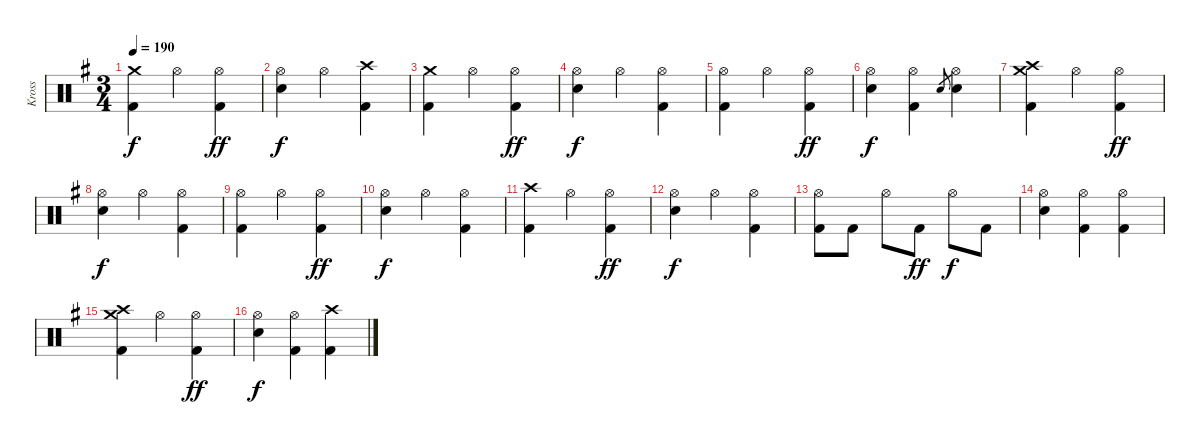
\track ("Kross" "Kross") {instrument percussion}
\staff {score}
\articulation defaults
\ts (3 4)
\tempo 190
\clef neutral
\ks g
("Crash medium (hit)" "Kick (hit) 2").4{dy f} "Hi-Hat (open)".4 ("Hi-Hat (open)" "Kick (hit) 2").4{dy ff} |
("Hi-Hat (open)" "Snare (hit) 2").4{dy f} "Hi-Hat (open)".4 ("Crash high (hit)" "Kick (hit) 2").4 |
("Crash medium (hit)" "Kick (hit) 2").4 "Hi-Hat (open)".4 ("Hi-Hat (open)" "Kick (hit) 2").4{dy ff} |
("Hi-Hat (open)" "Snare (hit) 2").4{dy f} "Hi-Hat (open)".4 ("Hi-Hat (open)" "Kick (hit) 2").4 |
("Hi-Hat (open)" "Kick (hit) 2").4 "Hi-Hat (open)".4 ("Hi-Hat (open)" "Kick (hit) 2").4{dy ff} |
("Hi-Hat (open)" "Snare (hit) 2").4{dy f} ("Hi-Hat (open)" "Kick (hit) 2").4 "Electric Snare (hit)".8{gr} ("Hi-Hat (open)" "Electric Snare (hit)").4 |
("Crash high (hit)" "Crash medium (hit)" "Kick (hit) 2").4 "Hi-Hat (open)".4 ("Hi-Hat (open)" "Kick (hit) 2").4{dy ff} |
("Hi-Hat (open)" "Snare (hit) 2").4{dy f} "Hi-Hat (open)".4 ("Hi-Hat (open)" "Kick (hit) 2").4 |
("Hi-Hat (open)" "Kick (hit) 2").4 "Hi-Hat (open)".4 ("Hi-Hat (open)" "Kick (hit) 2").4{dy ff} |
("Hi-Hat (open)" "Snare (hit) 2").4{dy f} "Hi-Hat (open)".4 ("Hi-Hat (open)" "Kick (hit) 2").4 |
("Crash high (hit)" "Kick (hit) 2").4 "Hi-Hat (open)".4 ("Hi-Hat (open)" "Kick (hit) 2").4{dy ff} |
("Hi-Hat (open)" "Snare (hit) 2").4{dy f} "Hi-Hat (open)".4 ("Hi-Hat (open)" "Kick (hit) 2").4 |
("Hi-Hat (open)" "Kick (hit) 2").8 "Kick (hit) 2".8 "Hi-Hat (open)".8 "Kick (hit) 2".8{dy ff} "Hi-Hat (open)".8{dy f} "Kick (hit) 2".8 |
("Hi-Hat (open)" "Snare (hit) 2").4 ("Hi-Hat (open)" "Kick (hit) 2").4 ("Hi-Hat (open)" "Kick (hit) 2").4 |
("Crash high (hit)" "Crash medium (hit)" "Kick (hit) 2").4 "Hi-Hat (open)".4 ("Hi-Hat (open)" "Kick (hit) 2").4{dy ff} |
("Hi-Hat (open)" "Snare (hit) 2").4{dy f} ("Hi-Hat (open)" "Kick (hit) 2").4 ("Crash high (hit)" "Kick (hit) 2").4
